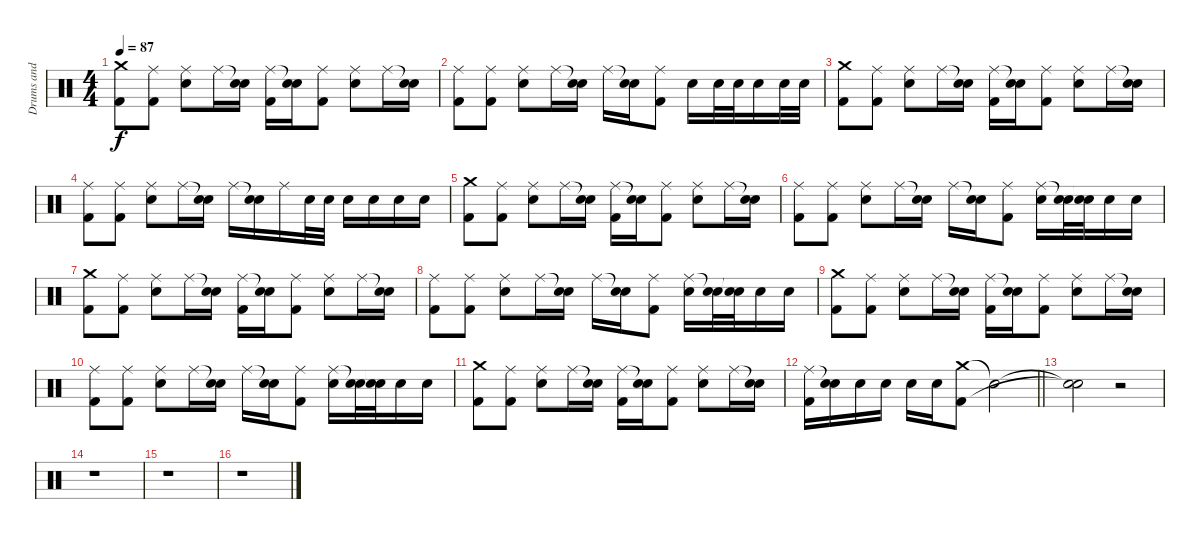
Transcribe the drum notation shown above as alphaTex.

\track ("Drums and Percussion" "Drums and ") {instrument percussion}
\staff {score}
\articulation defaults
\ts (4 4)
\tempo 87
\clef neutral
\ks c
("Crash medium (hit)" "Kick (hit) 2").8{dy f} ("Ride (middle)" "Kick (hit) 2").8 ("Ride (middle)" "Snare (hit) 2").8 "Ride (middle)".16 ("Snare (hit)"{t} "Snare (hit) 2").16 ("Ride (middle)" "Kick (hit) 2").16 ("Snare (hit)"{t} "Snare (hit) 2").16 ("Ride (middle)" "Kick (hit) 2").8 ("Ride (middle)" "Snare (hit) 2").8 "Ride (middle)".16 ("Snare (hit)"{t} "Snare (hit) 2").16 |
("Ride (middle)" "Kick (hit) 2").8 ("Ride (middle)" "Kick (hit) 2").8 ("Ride (middle)" "Snare (hit) 2").8 "Ride (middle)".16 ("Snare (hit)"{t} "Snare (hit) 2").16 "Ride (middle)".16 ("Snare (hit)"{t} "Snare (hit) 2").16 ("Ride (middle)" "Kick (hit) 2").8 "Snare (hit) 2".16 "Snare (hit) 2".32 "Snare (hit) 2".32 "Snare (hit) 2".16 "Snare (hit) 2".32 "Snare (hit) 2".32 |
("Crash medium (hit)" "Kick (hit) 2").8 ("Ride (middle)" "Kick (hit) 2").8 ("Ride (middle)" "Snare (hit) 2").8 "Ride (middle)".16 ("Snare (hit)"{t} "Snare (hit) 2").16 ("Ride (middle)" "Kick (hit) 2").16 ("Snare (hit)"{t} "Snare (hit) 2").16 ("Ride (middle)" "Kick (hit) 2").8 ("Ride (middle)" "Snare (hit) 2").8 "Ride (middle)".16 ("Snare (hit)"{t} "Snare (hit) 2").16 |
("Ride (middle)" "Kick (hit) 2").8 ("Ride (middle)" "Kick (hit) 2").8 ("Ride (middle)" "Snare (hit) 2").8 "Ride (middle)".16 ("Snare (hit)"{t} "Snare (hit) 2").16 "Ride (middle)".16 ("Snare (hit)"{t} "Snare (hit) 2").16 "Ride (middle)".16 "Snare (hit) 2".32 "Snare (hit) 2".32 "Snare (hit) 2".16 "Snare (hit) 2".16 "Snare (hit) 2".16 "Snare (hit) 2".16 |
("Crash medium (hit)" "Kick (hit) 2").8 ("Ride (middle)" "Kick (hit) 2").8 ("Ride (middle)" "Snare (hit) 2").8 "Ride (middle)".16 ("Snare (hit)"{t} "Snare (hit) 2").16 ("Ride (middle)" "Kick (hit) 2").16 ("Snare (hit)"{t} "Snare (hit) 2").16 ("Ride (middle)" "Kick (hit) 2").8 ("Ride (middle)" "Snare (hit) 2").8 "Ride (middle)".16 ("Snare (hit)"{t} "Snare (hit) 2").16 |
("Ride (middle)" "Kick (hit) 2").8 ("Ride (middle)" "Kick (hit) 2").8 ("Ride (middle)" "Snare (hit) 2").8 "Ride (middle)".16 ("Snare (hit)"{t} "Snare (hit) 2").16 "Ride (middle)".16 ("Snare (hit)"{t} "Snare (hit) 2").16 ("Ride (middle)" "Kick (hit) 2").8 ("Ride (middle)" "Snare (hit) 2").16 ("Snare (hit)"{t} "Snare (hit) 2").32 ("Snare (hit)"{t} "Snare (hit) 2").32 "Snare (hit) 2".16 "Snare (hit) 2".16 |
("Crash medium (hit)" "Kick (hit) 2").8 ("Ride (middle)" "Kick (hit) 2").8 ("Ride (middle)" "Snare (hit) 2").8 "Ride (middle)".16 ("Snare (hit)"{t} "Snare (hit) 2").16 ("Ride (middle)" "Kick (hit) 2").16 ("Snare (hit)"{t} "Snare (hit) 2").16 ("Ride (middle)" "Kick (hit) 2").8 ("Ride (middle)" "Snare (hit) 2").8 "Ride (middle)".16 ("Snare (hit)"{t} "Snare (hit) 2").16 |
("Ride (middle)" "Kick (hit) 2").8 ("Ride (middle)" "Kick (hit) 2").8 ("Ride (middle)" "Snare (hit) 2").8 "Ride (middle)".16 ("Snare (hit)"{t} "Snare (hit) 2").16 "Ride (middle)".16 ("Snare (hit)"{t} "Snare (hit) 2").16 ("Ride (middle)" "Kick (hit) 2").8 ("Ride (middle)" "Snare (hit) 2").16 ("Snare (hit)"{t} "Snare (hit) 2").32 ("Snare (hit)"{t} "Snare (hit) 2").32 "Snare (hit) 2".16 "Snare (hit) 2".16 |
("Crash medium (hit)" "Kick (hit) 2").8 ("Ride (middle)" "Kick (hit) 2").8 ("Ride (middle)" "Snare (hit) 2").8 "Ride (middle)".16 ("Snare (hit)"{t} "Snare (hit) 2").16 ("Ride (middle)" "Kick (hit) 2").16 ("Snare (hit)"{t} "Snare (hit) 2").16 ("Ride (middle)" "Kick (hit) 2").8 ("Ride (middle)" "Snare (hit) 2").8 "Ride (middle)".16 ("Snare (hit)"{t} "Snare (hit) 2").16 |
("Ride (middle)" "Kick (hit) 2").8 ("Ride (middle)" "Kick (hit) 2").8 ("Ride (middle)" "Snare (hit) 2").8 "Ride (middle)".16 ("Snare (hit)"{t} "Snare (hit) 2").16 "Ride (middle)".16 ("Snare (hit)"{t} "Snare (hit) 2").16 ("Ride (middle)" "Kick (hit) 2").8 ("Ride (middle)" "Snare (hit) 2").16 ("Snare (hit)"{t} "Snare (hit) 2").32 ("Snare (hit)"{t} "Snare (hit) 2").32 "Snare (hit) 2".16 "Snare (hit) 2".16 |
("Crash medium (hit)" "Kick (hit) 2").8 ("Ride (middle)" "Kick (hit) 2").8 ("Ride (middle)" "Snare (hit) 2").8 "Ride (middle)".16 ("Snare (hit)"{t} "Snare (hit) 2").16 ("Ride (middle)" "Kick (hit) 2").16 ("Snare (hit)"{t} "Snare (hit) 2").16 ("Ride (middle)" "Kick (hit) 2").8 ("Ride (middle)" "Snare (hit) 2").8 "Ride (middle)".16 ("Snare (hit)"{t} "Snare (hit) 2").16 |
\barLineRight lightlight
("Ride (middle)" "Kick (hit) 2").16 ("Snare (hit)"{t} "Snare (hit) 2").16 "Snare (hit) 2".16 "Snare (hit) 2".16 "Snare (hit) 2".16 "Snare (hit) 2".16 ("Crash medium (hit)" "Kick (hit) 2").8 "Snare (hit)"{t}.2 |
("Snare (hit)"{t} "Snare (hit)"{t}).2 r.2 |
r.1 |
r.1 |
r.1
